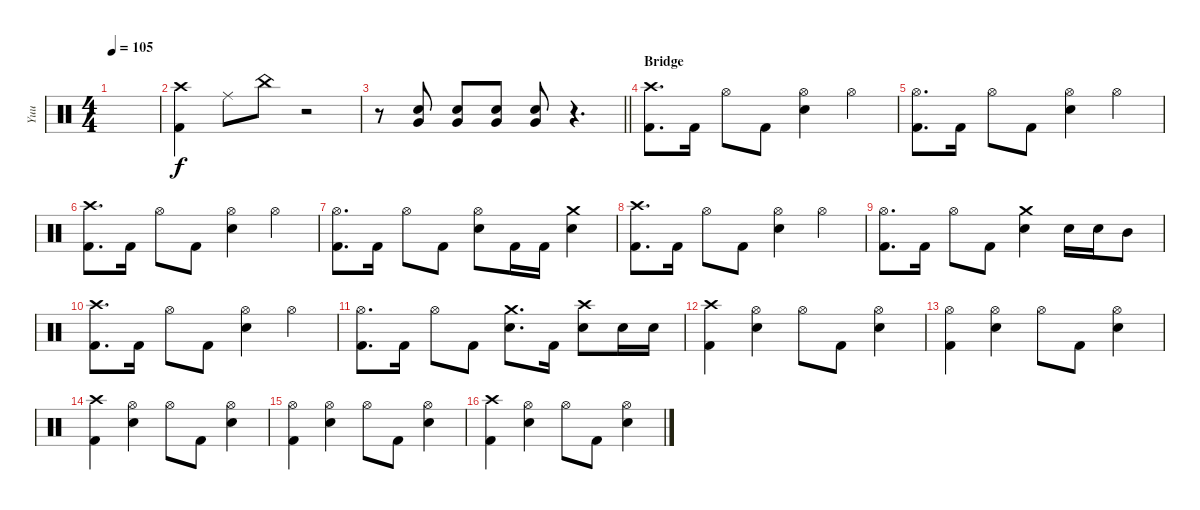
\track ("Yuu" "Yuu") {instrument percussion}
\staff {score}
\articulation defaults
\ts (4 4)
\tempo 105
\clef neutral
\ks c
|
("Crash high (hit)" "Kick (hit) 2").4 "Ride (middle)".8 "China (hit)".8 r.2 |
\barLineRight lightlight
r.8 ("Electric Snare (hit)" "Very Low Tom (hit)").8 ("Electric Snare (hit)" "Very Low Tom (hit)").8 ("Electric Snare (hit)" "Very Low Tom (hit)").8 ("Electric Snare (hit)" "Very Low Tom (hit)").8 r.4{d} |
\section ("" "Bridge")
("Crash high (hit)" "Kick (hit) 2").8{d} "Kick (hit) 2".16 "Hi-Hat (open)".8 "Kick (hit) 2".8 ("Hi-Hat (open)" "Electric Snare (hit)").4 "Hi-Hat (open)".4 |
("Hi-Hat (open)" "Kick (hit) 2").8{d} "Kick (hit) 2".16 "Hi-Hat (open)".8 "Kick (hit) 2".8 ("Hi-Hat (open)" "Electric Snare (hit)").4 "Hi-Hat (open)".4 |
("Crash high (hit)" "Kick (hit) 2").8{d} "Kick (hit) 2".16 "Hi-Hat (open)".8 "Kick (hit) 2".8 ("Hi-Hat (open)" "Electric Snare (hit)").4 "Hi-Hat (open)".4 |
("Hi-Hat (open)" "Kick (hit) 2").8{d} "Kick (hit) 2".16 "Hi-Hat (open)".8 "Kick (hit) 2".8 ("Hi-Hat (open)" "Electric Snare (hit)").8 "Kick (hit) 2".16 "Kick (hit) 2".16 ("Crash medium (hit)" "Electric Snare (hit)").4 |
("Crash high (hit)" "Kick (hit) 2").8{d} "Kick (hit) 2".16 "Hi-Hat (open)".8 "Kick (hit) 2".8 ("Hi-Hat (open)" "Electric Snare (hit)").4 "Hi-Hat (open)".4 |
("Hi-Hat (open)" "Kick (hit) 2").8{d} "Kick (hit) 2".16 "Hi-Hat (open)".8 "Kick (hit) 2".8 ("Crash medium (hit)" "Electric Snare (hit)").4 "Electric Snare (hit)".16 "Electric Snare (hit)".16 "Mid Tom (hit)".8 |
("Crash high (hit)" "Kick (hit) 2").8{d} "Kick (hit) 2".16 "Hi-Hat (open)".8 "Kick (hit) 2".8 ("Hi-Hat (open)" "Electric Snare (hit)").4 "Hi-Hat (open)".4 |
("Hi-Hat (open)" "Kick (hit) 2").8{d} "Kick (hit) 2".16 "Hi-Hat (open)".8 "Kick (hit) 2".8 ("Crash medium (hit)" "Electric Snare (hit)").8{d} "Kick (hit) 2".16 ("Crash high (hit)" "Electric Snare (hit)").8 "Electric Snare (hit)".16 "Electric Snare (hit)".16 |
("Crash high (hit)" "Kick (hit) 2").4 ("Hi-Hat (open)" "Electric Snare (hit)").4 "Hi-Hat (open)".8 "Kick (hit) 2".8 ("Hi-Hat (open)" "Electric Snare (hit)").4 |
("Hi-Hat (open)" "Kick (hit) 2").4 ("Hi-Hat (open)" "Electric Snare (hit)").4 "Hi-Hat (open)".8 "Kick (hit) 2".8 ("Hi-Hat (open)" "Electric Snare (hit)").4 |
("Crash high (hit)" "Kick (hit) 2").4 ("Hi-Hat (open)" "Electric Snare (hit)").4 "Hi-Hat (open)".8 "Kick (hit) 2".8 ("Hi-Hat (open)" "Electric Snare (hit)").4 |
("Hi-Hat (open)" "Kick (hit) 2").4 ("Hi-Hat (open)" "Electric Snare (hit)").4 "Hi-Hat (open)".8 "Kick (hit) 2".8 ("Hi-Hat (open)" "Electric Snare (hit)").4 |
("Crash high (hit)" "Kick (hit) 2").4 ("Hi-Hat (open)" "Electric Snare (hit)").4 "Hi-Hat (open)".8 "Kick (hit) 2".8 ("Hi-Hat (open)" "Electric Snare (hit)").4
